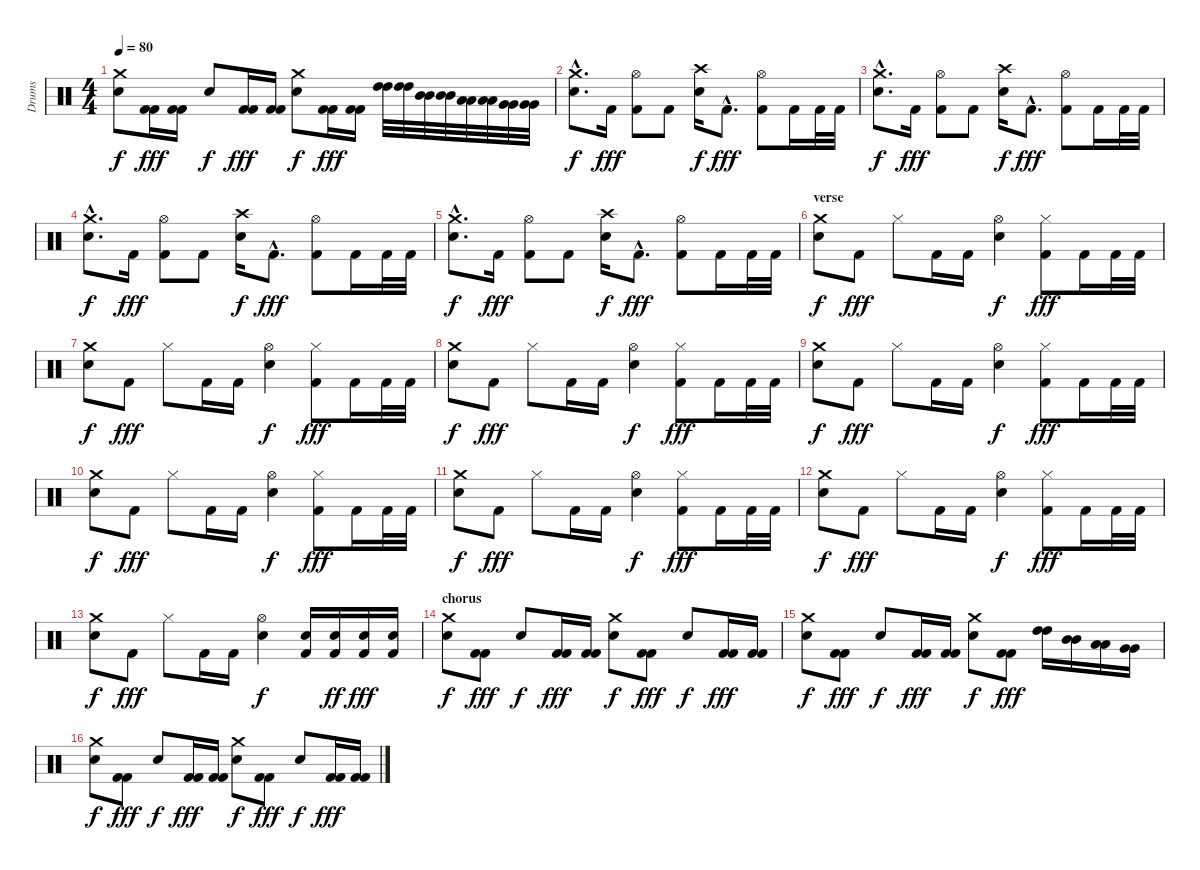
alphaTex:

\track ("Drums" "Drums") {instrument percussion}
\staff {score}
\articulation defaults
\ts (4 4)
\tempo 80
\clef neutral
\ks c
("Electric Snare (hit)" "Crash medium (hit)").8{dy f} ("Kick (hit) 2" "Kick (hit) 2").16{dy fff} ("Kick (hit) 2" "Kick (hit) 2").16 "Electric Snare (hit)".8{dy f} ("Kick (hit) 2" "Kick (hit) 2").16{dy fff} ("Kick (hit) 2" "Kick (hit) 2").16 ("Electric Snare (hit)" "Crash medium (hit)").8{dy f} ("Kick (hit) 2" "Kick (hit) 2").16{dy fff} ("Kick (hit) 2" "Kick (hit) 2").16 ("High Tom (hit)" "High Tom (hit)").32 ("High Tom (hit)" "High Tom (hit)").32 ("Mid Tom (hit)" "Mid Tom (hit)").32 ("Mid Tom (hit)" "Mid Tom (hit)").32 ("Low Tom (hit)" "Low Tom (hit)").32 ("Low Tom (hit)" "Low Tom (hit)").32 ("Very Low Tom (hit)" "Very Low Tom (hit)").32 ("Very Low Tom (hit)" "Very Low Tom (hit)").32 |
("Electric Snare (hit)"{hac} "Crash medium (hit)"{hac}).8{d dy f} "Kick (hit) 2".16{dy fff} ("Hi-Hat (open)" "Kick (hit) 2").8 "Kick (hit) 2".8 ("Crash high (hit)" "Electric Snare (hit)").16{dy f} "Kick (hit) 2"{hac}.8{d dy fff} ("Hi-Hat (open)" "Kick (hit) 2").8 "Kick (hit) 2".16 "Kick (hit) 2".32 "Kick (hit) 2".32 |
("Electric Snare (hit)"{hac} "Crash medium (hit)"{hac}).8{d dy f} "Kick (hit) 2".16{dy fff} ("Hi-Hat (open)" "Kick (hit) 2").8 "Kick (hit) 2".8 ("Crash high (hit)" "Electric Snare (hit)").16{dy f} "Kick (hit) 2"{hac}.8{d dy fff} ("Hi-Hat (open)" "Kick (hit) 2").8 "Kick (hit) 2".16 "Kick (hit) 2".32 "Kick (hit) 2".32 |
("Electric Snare (hit)"{hac} "Crash medium (hit)"{hac}).8{d dy f} "Kick (hit) 2".16{dy fff} ("Hi-Hat (open)" "Kick (hit) 2").8 "Kick (hit) 2".8 ("Crash high (hit)" "Electric Snare (hit)").16{dy f} "Kick (hit) 2"{hac}.8{d dy fff} ("Hi-Hat (open)" "Kick (hit) 2").8 "Kick (hit) 2".16 "Kick (hit) 2".32 "Kick (hit) 2".32 |
("Electric Snare (hit)"{hac} "Crash medium (hit)"{hac}).8{d dy f} "Kick (hit) 2".16{dy fff} ("Hi-Hat (open)" "Kick (hit) 2").8 "Kick (hit) 2".8 ("Crash high (hit)" "Electric Snare (hit)").16{dy f} "Kick (hit) 2"{hac}.8{d dy fff} ("Hi-Hat (open)" "Kick (hit) 2").8 "Kick (hit) 2".16 "Kick (hit) 2".32 "Kick (hit) 2".32 |
\section ("" "verse")
("Crash medium (hit)" "Electric Snare (hit)").8{dy f} "Kick (hit) 2".8{dy fff} "Hi-Hat (closed)".8 "Kick (hit) 2".16 "Kick (hit) 2".16 ("Hi-Hat (open)" "Electric Snare (hit)").4{dy f} ("Hi-Hat (closed)" "Kick (hit) 2").8{dy fff} "Kick (hit) 2".16 "Kick (hit) 2".32 "Kick (hit) 2".32 |
("Crash medium (hit)" "Electric Snare (hit)").8{dy f} "Kick (hit) 2".8{dy fff} "Hi-Hat (closed)".8 "Kick (hit) 2".16 "Kick (hit) 2".16 ("Hi-Hat (open)" "Electric Snare (hit)").4{dy f} ("Hi-Hat (closed)" "Kick (hit) 2").8{dy fff} "Kick (hit) 2".16 "Kick (hit) 2".32 "Kick (hit) 2".32 |
("Crash medium (hit)" "Electric Snare (hit)").8{dy f} "Kick (hit) 2".8{dy fff} "Hi-Hat (closed)".8 "Kick (hit) 2".16 "Kick (hit) 2".16 ("Hi-Hat (open)" "Electric Snare (hit)").4{dy f} ("Hi-Hat (closed)" "Kick (hit) 2").8{dy fff} "Kick (hit) 2".16 "Kick (hit) 2".32 "Kick (hit) 2".32 |
("Crash medium (hit)" "Electric Snare (hit)").8{dy f} "Kick (hit) 2".8{dy fff} "Hi-Hat (closed)".8 "Kick (hit) 2".16 "Kick (hit) 2".16 ("Hi-Hat (open)" "Electric Snare (hit)").4{dy f} ("Hi-Hat (closed)" "Kick (hit) 2").8{dy fff} "Kick (hit) 2".16 "Kick (hit) 2".32 "Kick (hit) 2".32 |
("Crash medium (hit)" "Electric Snare (hit)").8{dy f} "Kick (hit) 2".8{dy fff} "Hi-Hat (closed)".8 "Kick (hit) 2".16 "Kick (hit) 2".16 ("Hi-Hat (open)" "Electric Snare (hit)").4{dy f} ("Hi-Hat (closed)" "Kick (hit) 2").8{dy fff} "Kick (hit) 2".16 "Kick (hit) 2".32 "Kick (hit) 2".32 |
("Crash medium (hit)" "Electric Snare (hit)").8{dy f} "Kick (hit) 2".8{dy fff} "Hi-Hat (closed)".8 "Kick (hit) 2".16 "Kick (hit) 2".16 ("Hi-Hat (open)" "Electric Snare (hit)").4{dy f} ("Hi-Hat (closed)" "Kick (hit) 2").8{dy fff} "Kick (hit) 2".16 "Kick (hit) 2".32 "Kick (hit) 2".32 |
("Crash medium (hit)" "Electric Snare (hit)").8{dy f} "Kick (hit) 2".8{dy fff} "Hi-Hat (closed)".8 "Kick (hit) 2".16 "Kick (hit) 2".16 ("Hi-Hat (open)" "Electric Snare (hit)").4{dy f} ("Hi-Hat (closed)" "Kick (hit) 2").8{dy fff} "Kick (hit) 2".16 "Kick (hit) 2".32 "Kick (hit) 2".32 |
("Crash medium (hit)" "Electric Snare (hit)").8{dy f} "Kick (hit) 2".8{dy fff} "Hi-Hat (closed)".8 "Kick (hit) 2".16 "Kick (hit) 2".16 ("Hi-Hat (open)" "Electric Snare (hit)").4{dy f} ("Kick (hit) 2" "Electric Snare (hit)").16 ("Kick (hit) 2" "Electric Snare (hit)").16{dy ff} ("Kick (hit) 2" "Electric Snare (hit)").16{dy fff} ("Kick (hit) 2" "Electric Snare (hit)").16 |
\section ("" "chorus")
("Electric Snare (hit)" "Crash medium (hit)").8{dy f} ("Kick (hit) 2" "Kick (hit) 2").8{dy fff} "Electric Snare (hit)".8{dy f} ("Kick (hit) 2" "Kick (hit) 2").16{dy fff} ("Kick (hit) 2" "Kick (hit) 2").16 ("Electric Snare (hit)" "Crash medium (hit)").8{dy f} ("Kick (hit) 2" "Kick (hit) 2").8{dy fff} "Electric Snare (hit)".8{dy f} ("Kick (hit) 2" "Kick (hit) 2").16{dy fff} ("Kick (hit) 2" "Kick (hit) 2").16 |
("Electric Snare (hit)" "Crash medium (hit)").8{dy f} ("Kick (hit) 2" "Kick (hit) 2").8{dy fff} "Electric Snare (hit)".8{dy f} ("Kick (hit) 2" "Kick (hit) 2").16{dy fff} ("Kick (hit) 2" "Kick (hit) 2").16 ("Electric Snare (hit)" "Crash medium (hit)").8{dy f} ("Kick (hit) 2" "Kick (hit) 2").8{dy fff} ("High Tom (hit)" "High Tom (hit)").16 ("Mid Tom (hit)" "Mid Tom (hit)").16 ("Low Tom (hit)" "Low Tom (hit)").16 ("Very Low Tom (hit)" "Very Low Tom (hit)").16 |
("Electric Snare (hit)" "Crash medium (hit)").8{dy f} ("Kick (hit) 2" "Kick (hit) 2").8{dy fff} "Electric Snare (hit)".8{dy f} ("Kick (hit) 2" "Kick (hit) 2").16{dy fff} ("Kick (hit) 2" "Kick (hit) 2").16 ("Electric Snare (hit)" "Crash medium (hit)").8{dy f} ("Kick (hit) 2" "Kick (hit) 2").8{dy fff} "Electric Snare (hit)".8{dy f} ("Kick (hit) 2" "Kick (hit) 2").16{dy fff} ("Kick (hit) 2" "Kick (hit) 2").16
